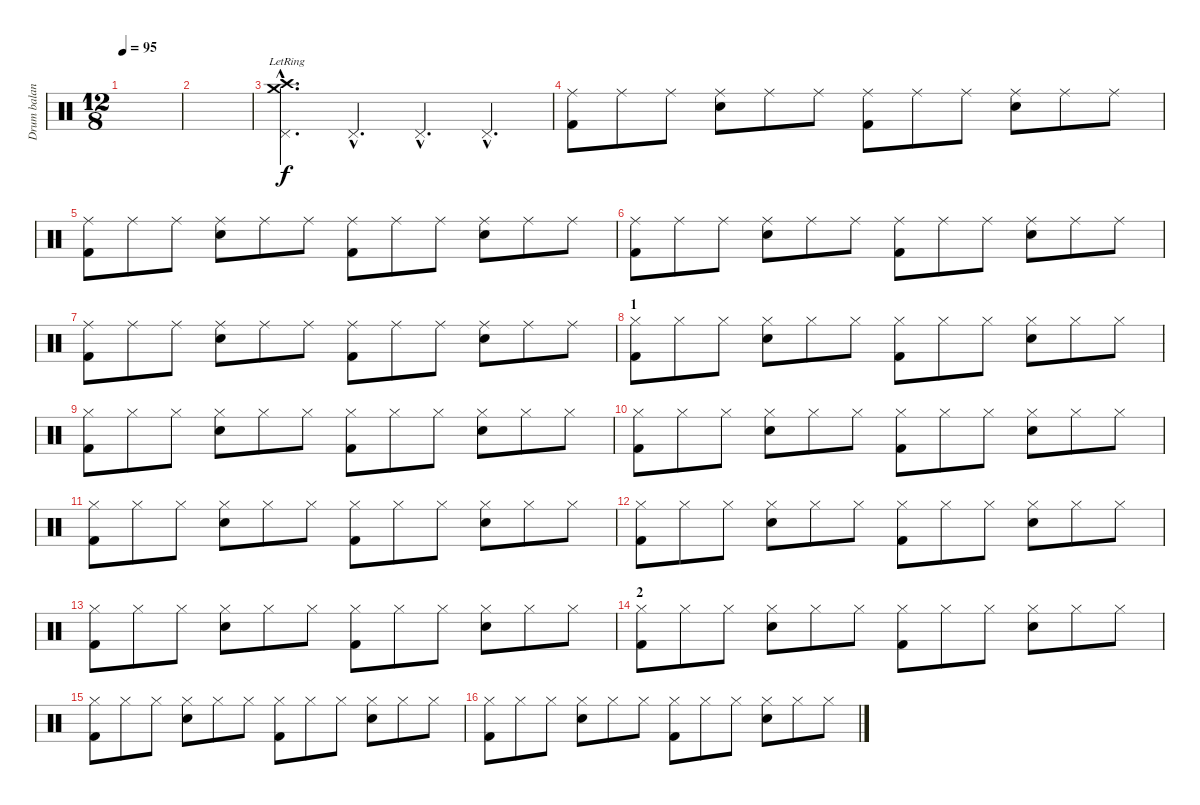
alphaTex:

\track ("Drum balance help" "Drum balan") {instrument percussion}
\staff {score}
\articulation defaults
\ts (12 8)
\tempo 95
\clef neutral
\ks c
|
|
("Pedal Hi-Hat (hit)"{hac} "Crash medium (hit)"{hac lr} "Crash high (hit)"{hac lr}).4{d} "Pedal Hi-Hat (hit)"{hac}.4{d} "Pedal Hi-Hat (hit)"{hac}.4{d} "Pedal Hi-Hat (hit)"{hac}.4{d} |
("Kick (hit) 2" "Ride (middle)").8 "Ride (middle)".8 "Ride (middle)".8 ("Snare (hit) 2" "Ride (middle)").8 "Ride (middle)".8 "Ride (middle)".8 ("Kick (hit) 2" "Ride (middle)").8 "Ride (middle)".8 "Ride (middle)".8 ("Snare (hit) 2" "Ride (middle)").8 "Ride (middle)".8 "Ride (middle)".8 |
("Kick (hit) 2" "Ride (middle)").8 "Ride (middle)".8 "Ride (middle)".8 ("Snare (hit) 2" "Ride (middle)").8 "Ride (middle)".8 "Ride (middle)".8 ("Kick (hit) 2" "Ride (middle)").8 "Ride (middle)".8 "Ride (middle)".8 ("Snare (hit) 2" "Ride (middle)").8 "Ride (middle)".8 "Ride (middle)".8 |
("Kick (hit) 2" "Ride (middle)").8 "Ride (middle)".8 "Ride (middle)".8 ("Snare (hit) 2" "Ride (middle)").8 "Ride (middle)".8 "Ride (middle)".8 ("Kick (hit) 2" "Ride (middle)").8 "Ride (middle)".8 "Ride (middle)".8 ("Snare (hit) 2" "Ride (middle)").8 "Ride (middle)".8 "Ride (middle)".8 |
("Kick (hit) 2" "Ride (middle)").8 "Ride (middle)".8 "Ride (middle)".8 ("Snare (hit) 2" "Ride (middle)").8 "Ride (middle)".8 "Ride (middle)".8 ("Kick (hit) 2" "Ride (middle)").8 "Ride (middle)".8 "Ride (middle)".8 ("Snare (hit) 2" "Ride (middle)").8 "Ride (middle)".8 "Ride (middle)".8 |
\section ("" "1")
("Kick (hit) 2" "Hi-Hat (closed)").8 "Hi-Hat (closed)".8 "Hi-Hat (closed)".8 ("Snare (hit) 2" "Hi-Hat (closed)").8 "Hi-Hat (closed)".8 "Hi-Hat (closed)".8 ("Kick (hit) 2" "Hi-Hat (closed)").8 "Hi-Hat (closed)".8 "Hi-Hat (closed)".8 ("Snare (hit) 2" "Hi-Hat (closed)").8 "Hi-Hat (closed)".8 "Hi-Hat (closed)".8 |
("Kick (hit) 2" "Hi-Hat (closed)").8 "Hi-Hat (closed)".8 "Hi-Hat (closed)".8 ("Snare (hit) 2" "Hi-Hat (closed)").8 "Hi-Hat (closed)".8 "Hi-Hat (closed)".8 ("Kick (hit) 2" "Hi-Hat (closed)").8 "Hi-Hat (closed)".8 "Hi-Hat (closed)".8 ("Snare (hit) 2" "Hi-Hat (closed)").8 "Hi-Hat (closed)".8 "Hi-Hat (closed)".8 |
("Kick (hit) 2" "Hi-Hat (closed)").8 "Hi-Hat (closed)".8 "Hi-Hat (closed)".8 ("Snare (hit) 2" "Hi-Hat (closed)").8 "Hi-Hat (closed)".8 "Hi-Hat (closed)".8 ("Kick (hit) 2" "Hi-Hat (closed)").8 "Hi-Hat (closed)".8 "Hi-Hat (closed)".8 ("Snare (hit) 2" "Hi-Hat (closed)").8 "Hi-Hat (closed)".8 "Hi-Hat (closed)".8 |
("Kick (hit) 2" "Hi-Hat (closed)").8 "Hi-Hat (closed)".8 "Hi-Hat (closed)".8 ("Snare (hit) 2" "Hi-Hat (closed)").8 "Hi-Hat (closed)".8 "Hi-Hat (closed)".8 ("Kick (hit) 2" "Hi-Hat (closed)").8 "Hi-Hat (closed)".8 "Hi-Hat (closed)".8 ("Snare (hit) 2" "Hi-Hat (closed)").8 "Hi-Hat (closed)".8 "Hi-Hat (closed)".8 |
("Kick (hit) 2" "Hi-Hat (closed)").8 "Hi-Hat (closed)".8 "Hi-Hat (closed)".8 ("Snare (hit) 2" "Hi-Hat (closed)").8 "Hi-Hat (closed)".8 "Hi-Hat (closed)".8 ("Kick (hit) 2" "Hi-Hat (closed)").8 "Hi-Hat (closed)".8 "Hi-Hat (closed)".8 ("Snare (hit) 2" "Hi-Hat (closed)").8 "Hi-Hat (closed)".8 "Hi-Hat (closed)".8 |
("Kick (hit) 2" "Hi-Hat (closed)").8 "Hi-Hat (closed)".8 "Hi-Hat (closed)".8 ("Snare (hit) 2" "Hi-Hat (closed)").8 "Hi-Hat (closed)".8 "Hi-Hat (closed)".8 ("Kick (hit) 2" "Hi-Hat (closed)").8 "Hi-Hat (closed)".8 "Hi-Hat (closed)".8 ("Snare (hit) 2" "Hi-Hat (closed)").8 "Hi-Hat (closed)".8 "Hi-Hat (closed)".8 |
\section ("" "2")
("Kick (hit) 2" "Hi-Hat (closed)").8 "Hi-Hat (closed)".8 "Hi-Hat (closed)".8 ("Snare (hit) 2" "Hi-Hat (closed)").8 "Hi-Hat (closed)".8 "Hi-Hat (closed)".8 ("Kick (hit) 2" "Hi-Hat (closed)").8 "Hi-Hat (closed)".8 "Hi-Hat (closed)".8 ("Snare (hit) 2" "Hi-Hat (closed)").8 "Hi-Hat (closed)".8 "Hi-Hat (closed)".8 |
("Kick (hit) 2" "Hi-Hat (closed)").8 "Hi-Hat (closed)".8 "Hi-Hat (closed)".8 ("Snare (hit) 2" "Hi-Hat (closed)").8 "Hi-Hat (closed)".8 "Hi-Hat (closed)".8 ("Kick (hit) 2" "Hi-Hat (closed)").8 "Hi-Hat (closed)".8 "Hi-Hat (closed)".8 ("Snare (hit) 2" "Hi-Hat (closed)").8 "Hi-Hat (closed)".8 "Hi-Hat (closed)".8 |
("Kick (hit) 2" "Hi-Hat (closed)").8 "Hi-Hat (closed)".8 "Hi-Hat (closed)".8 ("Snare (hit) 2" "Hi-Hat (closed)").8 "Hi-Hat (closed)".8 "Hi-Hat (closed)".8 ("Kick (hit) 2" "Hi-Hat (closed)").8 "Hi-Hat (closed)".8 "Hi-Hat (closed)".8 ("Snare (hit) 2" "Hi-Hat (closed)").8 "Hi-Hat (closed)".8 "Hi-Hat (closed)".8
